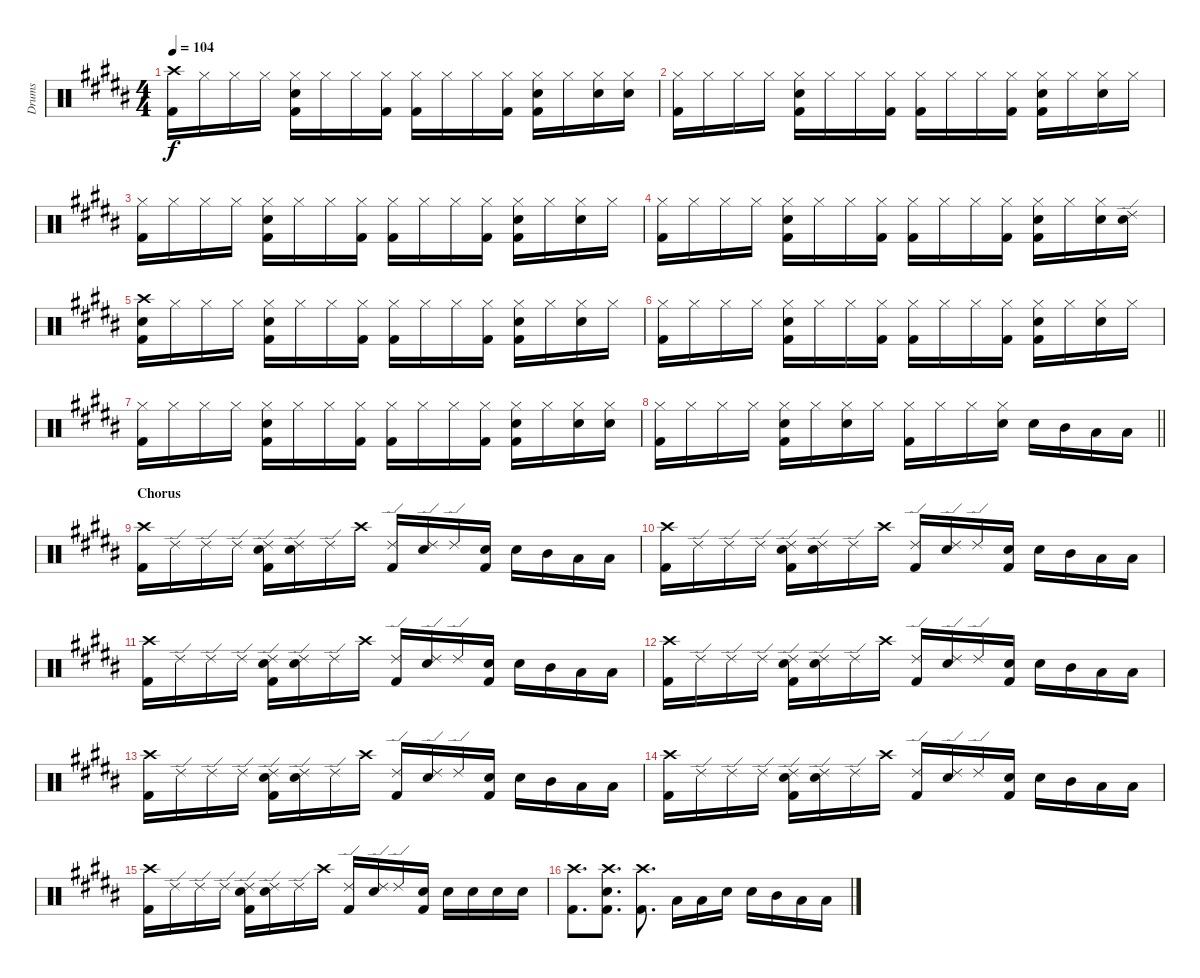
\track ("Drums" "Drums") {instrument percussion}
\staff {score}
\articulation defaults
\ts (4 4)
\tempo 104
\clef neutral
\ks b
("Kick (hit) 2" "Crash high (hit)").16{dy f} "Hi-Hat (closed)".16 "Hi-Hat (closed)".16 "Hi-Hat (closed)".16 ("Electric Snare (hit)" "Kick (hit) 2" "Hi-Hat (closed)").16 "Hi-Hat (closed)".16 "Hi-Hat (closed)".16 ("Kick (hit) 2" "Hi-Hat (closed)").16 ("Kick (hit) 2" "Hi-Hat (closed)").16 "Hi-Hat (closed)".16 "Hi-Hat (closed)".16 ("Kick (hit) 2" "Hi-Hat (closed)").16 ("Electric Snare (hit)" "Kick (hit) 2" "Hi-Hat (closed)").16 "Hi-Hat (closed)".16 ("Electric Snare (hit)" "Hi-Hat (closed)").16 ("Electric Snare (hit)" "Hi-Hat (closed)").16 |
("Kick (hit) 2" "Hi-Hat (closed)").16 "Hi-Hat (closed)".16 "Hi-Hat (closed)".16 "Hi-Hat (closed)".16 ("Electric Snare (hit)" "Kick (hit) 2" "Hi-Hat (closed)").16 "Hi-Hat (closed)".16 "Hi-Hat (closed)".16 ("Kick (hit) 2" "Hi-Hat (closed)").16 ("Kick (hit) 2" "Hi-Hat (closed)").16 "Hi-Hat (closed)".16 "Hi-Hat (closed)".16 ("Kick (hit) 2" "Hi-Hat (closed)").16 ("Electric Snare (hit)" "Kick (hit) 2" "Hi-Hat (closed)").16 "Hi-Hat (closed)".16 ("Electric Snare (hit)" "Hi-Hat (closed)").16 "Hi-Hat (closed)".16 |
("Kick (hit) 2" "Hi-Hat (closed)").16 "Hi-Hat (closed)".16 "Hi-Hat (closed)".16 "Hi-Hat (closed)".16 ("Electric Snare (hit)" "Kick (hit) 2" "Hi-Hat (closed)").16 "Hi-Hat (closed)".16 "Hi-Hat (closed)".16 ("Kick (hit) 2" "Hi-Hat (closed)").16 ("Kick (hit) 2" "Hi-Hat (closed)").16 "Hi-Hat (closed)".16 "Hi-Hat (closed)".16 ("Kick (hit) 2" "Hi-Hat (closed)").16 ("Electric Snare (hit)" "Kick (hit) 2" "Hi-Hat (closed)").16 "Hi-Hat (closed)".16 ("Electric Snare (hit)" "Hi-Hat (closed)").16 "Hi-Hat (closed)".16 |
("Kick (hit) 2" "Hi-Hat (closed)").16 "Hi-Hat (closed)".16 "Hi-Hat (closed)".16 "Hi-Hat (closed)".16 ("Electric Snare (hit)" "Kick (hit) 2" "Hi-Hat (closed)").16 "Hi-Hat (closed)".16 "Hi-Hat (closed)".16 ("Kick (hit) 2" "Hi-Hat (closed)").16 ("Kick (hit) 2" "Hi-Hat (closed)").16 "Hi-Hat (closed)".16 "Hi-Hat (closed)".16 ("Kick (hit) 2" "Hi-Hat (closed)").16 ("Electric Snare (hit)" "Kick (hit) 2" "Hi-Hat (closed)").16 "Hi-Hat (closed)".16 ("Electric Snare (hit)" "Hi-Hat (closed)").16 ("Electric Snare (hit)" "Ride (edge) 2").16 |
("Electric Snare (hit)" "Kick (hit) 2" "Crash high (hit)").16 "Hi-Hat (closed)".16 "Hi-Hat (closed)".16 "Hi-Hat (closed)".16 ("Electric Snare (hit)" "Kick (hit) 2" "Hi-Hat (closed)").16 "Hi-Hat (closed)".16 "Hi-Hat (closed)".16 ("Kick (hit) 2" "Hi-Hat (closed)").16 ("Kick (hit) 2" "Hi-Hat (closed)").16 "Hi-Hat (closed)".16 "Hi-Hat (closed)".16 ("Kick (hit) 2" "Hi-Hat (closed)").16 ("Electric Snare (hit)" "Kick (hit) 2" "Hi-Hat (closed)").16 "Hi-Hat (closed)".16 ("Electric Snare (hit)" "Hi-Hat (closed)").16 "Hi-Hat (closed)".16 |
("Kick (hit) 2" "Hi-Hat (closed)").16 "Hi-Hat (closed)".16 "Hi-Hat (closed)".16 "Hi-Hat (closed)".16 ("Electric Snare (hit)" "Kick (hit) 2" "Hi-Hat (closed)").16 "Hi-Hat (closed)".16 "Hi-Hat (closed)".16 ("Kick (hit) 2" "Hi-Hat (closed)").16 ("Kick (hit) 2" "Hi-Hat (closed)").16 "Hi-Hat (closed)".16 "Hi-Hat (closed)".16 ("Kick (hit) 2" "Hi-Hat (closed)").16 ("Electric Snare (hit)" "Kick (hit) 2" "Hi-Hat (closed)").16 "Hi-Hat (closed)".16 ("Electric Snare (hit)" "Hi-Hat (closed)").16 "Hi-Hat (closed)".16 |
("Kick (hit) 2" "Hi-Hat (closed)").16 "Hi-Hat (closed)".16 "Hi-Hat (closed)".16 "Hi-Hat (closed)".16 ("Electric Snare (hit)" "Kick (hit) 2" "Hi-Hat (closed)").16 "Hi-Hat (closed)".16 "Hi-Hat (closed)".16 ("Kick (hit) 2" "Hi-Hat (closed)").16 ("Kick (hit) 2" "Hi-Hat (closed)").16 "Hi-Hat (closed)".16 "Hi-Hat (closed)".16 ("Kick (hit) 2" "Hi-Hat (closed)").16 ("Electric Snare (hit)" "Kick (hit) 2" "Hi-Hat (closed)").16 "Hi-Hat (closed)".16 ("Electric Snare (hit)" "Hi-Hat (closed)").16 ("Electric Snare (hit)" "Hi-Hat (closed)").16 |
\barLineRight lightlight
("Kick (hit) 2" "Hi-Hat (closed)").16 "Hi-Hat (closed)".16 "Hi-Hat (closed)".16 "Hi-Hat (closed)".16 ("Electric Snare (hit)" "Kick (hit) 2" "Hi-Hat (closed)").16 "Hi-Hat (closed)".16 ("Electric Snare (hit)" "Hi-Hat (closed)").16 "Hi-Hat (closed)".16 ("Kick (hit) 2" "Hi-Hat (closed)").16 "Hi-Hat (closed)".16 "Hi-Hat (closed)".16 ("Electric Snare (hit)" "Hi-Hat (closed)").16 "Electric Snare (hit)".16 "Mid Tom (hit)".16 "Low Tom (hit)".16 "Low Floor Tom (hit)".16 |
\section ("" "Chorus")
("Kick (hit) 2" "Crash high (hit)").16 "Ride (edge) 2".16 "Ride (edge) 2".16 "Ride (edge) 2".16 ("Electric Snare (hit)" "Kick (hit) 2" "Ride (edge) 2").16 ("Electric Snare (hit)" "Ride (edge) 2").16 "Ride (edge) 2".16 "Crash high (hit)".16 ("Kick (hit) 2" "Ride (edge) 2").16 ("Electric Snare (hit)" "Ride (edge) 2").16 "Ride (edge) 2".16 ("Electric Snare (hit)" "Kick (hit) 2").16 "Electric Snare (hit)".16 "Mid Tom (hit)".16 "Low Tom (hit)".16 "Low Floor Tom (hit)".16 |
("Kick (hit) 2" "Crash high (hit)").16 "Ride (edge) 2".16 "Ride (edge) 2".16 "Ride (edge) 2".16 ("Electric Snare (hit)" "Kick (hit) 2" "Ride (edge) 2").16 ("Electric Snare (hit)" "Ride (edge) 2").16 "Ride (edge) 2".16 "Crash high (hit)".16 ("Kick (hit) 2" "Ride (edge) 2").16 ("Electric Snare (hit)" "Ride (edge) 2").16 "Ride (edge) 2".16 ("Electric Snare (hit)" "Kick (hit) 2").16 "Electric Snare (hit)".16 "Mid Tom (hit)".16 "Low Tom (hit)".16 "Low Floor Tom (hit)".16 |
("Kick (hit) 2" "Crash high (hit)").16 "Ride (edge) 2".16 "Ride (edge) 2".16 "Ride (edge) 2".16 ("Electric Snare (hit)" "Kick (hit) 2" "Ride (edge) 2").16 ("Electric Snare (hit)" "Ride (edge) 2").16 "Ride (edge) 2".16 "Crash high (hit)".16 ("Kick (hit) 2" "Ride (edge) 2").16 ("Electric Snare (hit)" "Ride (edge) 2").16 "Ride (edge) 2".16 ("Electric Snare (hit)" "Kick (hit) 2").16 "Electric Snare (hit)".16 "Mid Tom (hit)".16 "Low Tom (hit)".16 "Low Floor Tom (hit)".16 |
("Kick (hit) 2" "Crash high (hit)").16 "Ride (edge) 2".16 "Ride (edge) 2".16 "Ride (edge) 2".16 ("Electric Snare (hit)" "Kick (hit) 2" "Ride (edge) 2").16 ("Electric Snare (hit)" "Ride (edge) 2").16 "Ride (edge) 2".16 "Crash high (hit)".16 ("Kick (hit) 2" "Ride (edge) 2").16 ("Electric Snare (hit)" "Ride (edge) 2").16 "Ride (edge) 2".16 ("Electric Snare (hit)" "Kick (hit) 2").16 "Electric Snare (hit)".16 "Mid Tom (hit)".16 "Low Tom (hit)".16 "Low Floor Tom (hit)".16 |
("Kick (hit) 2" "Crash high (hit)").16 "Ride (edge) 2".16 "Ride (edge) 2".16 "Ride (edge) 2".16 ("Electric Snare (hit)" "Kick (hit) 2" "Ride (edge) 2").16 ("Electric Snare (hit)" "Ride (edge) 2").16 "Ride (edge) 2".16 "Crash high (hit)".16 ("Kick (hit) 2" "Ride (edge) 2").16 ("Electric Snare (hit)" "Ride (edge) 2").16 "Ride (edge) 2".16 ("Electric Snare (hit)" "Kick (hit) 2").16 "Electric Snare (hit)".16 "Mid Tom (hit)".16 "Low Tom (hit)".16 "Low Floor Tom (hit)".16 |
("Kick (hit) 2" "Crash high (hit)").16 "Ride (edge) 2".16 "Ride (edge) 2".16 "Ride (edge) 2".16 ("Electric Snare (hit)" "Kick (hit) 2" "Ride (edge) 2").16 ("Electric Snare (hit)" "Ride (edge) 2").16 "Ride (edge) 2".16 "Crash high (hit)".16 ("Kick (hit) 2" "Ride (edge) 2").16 ("Electric Snare (hit)" "Ride (edge) 2").16 "Ride (edge) 2".16 ("Electric Snare (hit)" "Kick (hit) 2").16 "Electric Snare (hit)".16 "Mid Tom (hit)".16 "Low Tom (hit)".16 "Low Floor Tom (hit)".16 |
("Kick (hit) 2" "Crash high (hit)").16 "Ride (edge) 2".16 "Ride (edge) 2".16 "Ride (edge) 2".16 ("Electric Snare (hit)" "Kick (hit) 2" "Ride (edge) 2").16 ("Electric Snare (hit)" "Ride (edge) 2").16 "Ride (edge) 2".16 "Crash high (hit)".16 ("Kick (hit) 2" "Ride (edge) 2").16 ("Electric Snare (hit)" "Ride (edge) 2").16 "Ride (edge) 2".16 ("Electric Snare (hit)" "Kick (hit) 2").16 "Electric Snare (hit)".16 "Electric Snare (hit)".16 "Electric Snare (hit)".16 "Electric Snare (hit)".16 |
("Kick (hit) 2" "Crash high (hit)").8{d} ("Electric Snare (hit)" "Kick (hit) 2" "Crash high (hit)").8{d} ("Kick (hit) 2" "Crash high (hit)").8{d} "Low Floor Tom (hit)".16 "Low Floor Tom (hit)".16 "Electric Snare (hit)".16 "Electric Snare (hit)".16 "Mid Tom (hit)".16 "Low Tom (hit)".16 "Low Floor Tom (hit)".16
